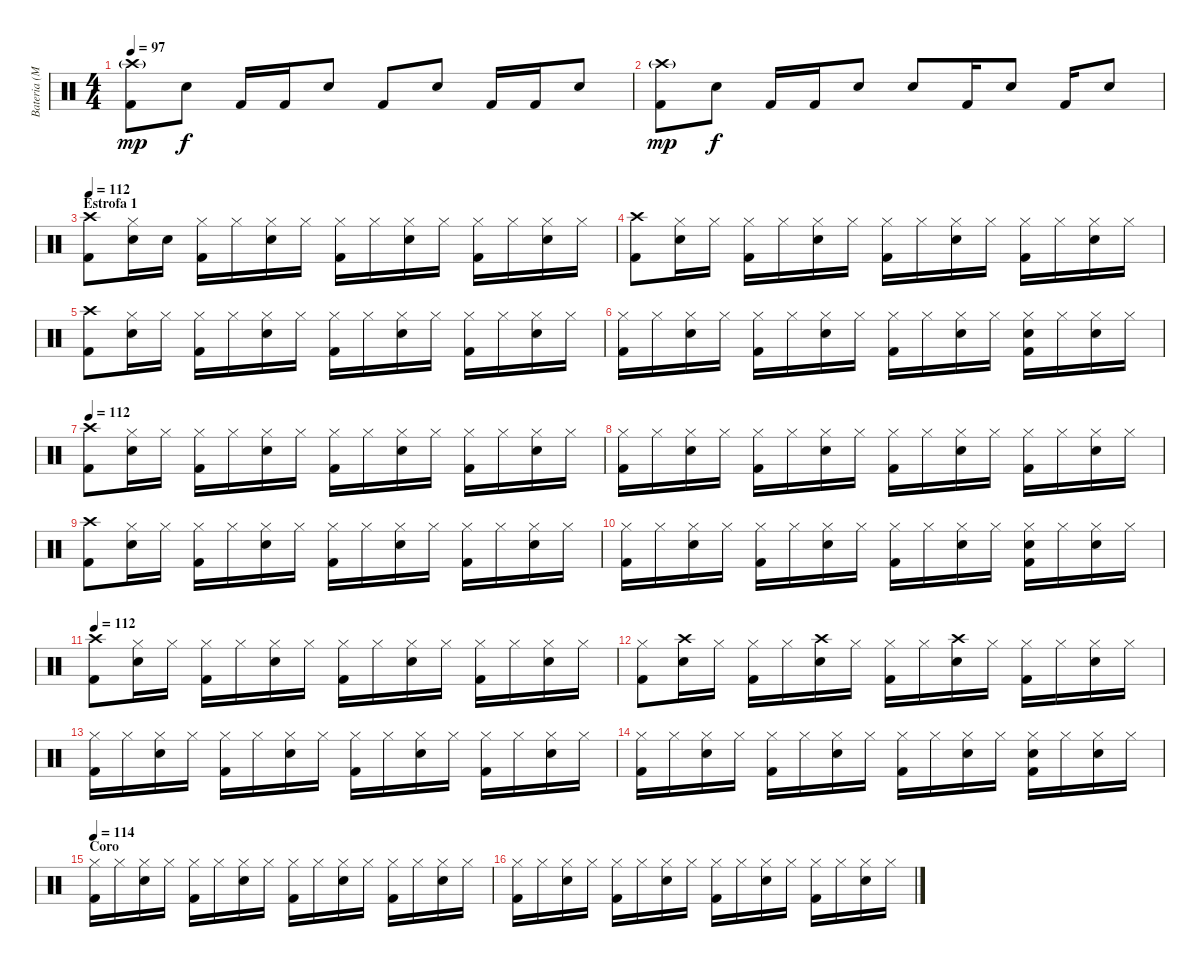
\track ("Bateria (Marcelo)" "Bateria (M") {instrument percussion}
\staff {score}
\articulation defaults
\ts (4 4)
\tempo 97
\clef neutral
\ks c
("Kick (hit) 2" "Crash high (hit)"{g}).8{dy mp} "Snare (hit) 2".8{dy f} "Kick (hit) 2".16 "Kick (hit) 2".16 "Snare (hit) 2".8 "Kick (hit) 2".8 "Snare (hit) 2".8 "Kick (hit) 2".16 "Kick (hit) 2".16 "Snare (hit) 2".8 |
("Kick (hit) 2" "Crash high (hit)"{g}).8{dy mp} "Snare (hit) 2".8{dy f} "Kick (hit) 2".16 "Kick (hit) 2".16 "Snare (hit) 2".8 "Snare (hit) 2".8 "Kick (hit) 2".16 "Snare (hit) 2".8 "Kick (hit) 2".16 "Snare (hit) 2".8 |
\section ("" "Estrofa 1")
\tempo 112
("Kick (hit) 2" "Crash high (hit)").8{volume 9} ("Snare (hit) 2" "Hi-Hat (closed)").16 "Snare (hit)".16 ("Kick (hit) 2" "Hi-Hat (closed)").16 "Hi-Hat (closed)".16 ("Snare (hit) 2" "Hi-Hat (closed)").16 "Hi-Hat (closed)".16 ("Kick (hit) 2" "Hi-Hat (closed)").16 "Hi-Hat (closed)".16 ("Snare (hit) 2" "Hi-Hat (closed)").16 "Hi-Hat (closed)".16 ("Kick (hit) 2" "Hi-Hat (closed)").16 "Hi-Hat (closed)".16 ("Snare (hit) 2" "Hi-Hat (closed)").16 "Hi-Hat (closed)".16 |
("Kick (hit) 2" "Crash high (hit)").8 ("Snare (hit) 2" "Hi-Hat (closed)").16 "Hi-Hat (closed)".16 ("Kick (hit) 2" "Hi-Hat (closed)").16 "Hi-Hat (closed)".16 ("Snare (hit) 2" "Hi-Hat (closed)").16 "Hi-Hat (closed)".16 ("Kick (hit) 2" "Hi-Hat (closed)").16 "Hi-Hat (closed)".16 ("Snare (hit) 2" "Hi-Hat (closed)").16 "Hi-Hat (closed)".16 ("Kick (hit) 2" "Hi-Hat (closed)").16 "Hi-Hat (closed)".16 ("Snare (hit) 2" "Hi-Hat (closed)").16 "Hi-Hat (closed)".16 |
("Kick (hit) 2" "Crash high (hit)").8 ("Snare (hit) 2" "Hi-Hat (closed)").16 "Hi-Hat (closed)".16 ("Kick (hit) 2" "Hi-Hat (closed)").16 "Hi-Hat (closed)".16 ("Snare (hit) 2" "Hi-Hat (closed)").16 "Hi-Hat (closed)".16 ("Kick (hit) 2" "Hi-Hat (closed)").16 "Hi-Hat (closed)".16 ("Snare (hit) 2" "Hi-Hat (closed)").16 "Hi-Hat (closed)".16 ("Kick (hit) 2" "Hi-Hat (closed)").16 "Hi-Hat (closed)".16 ("Snare (hit) 2" "Hi-Hat (closed)").16 "Hi-Hat (closed)".16 |
("Kick (hit) 2" "Hi-Hat (closed)").16 "Hi-Hat (closed)".16 ("Snare (hit) 2" "Hi-Hat (closed)").16 "Hi-Hat (closed)".16 ("Kick (hit) 2" "Hi-Hat (closed)").16 "Hi-Hat (closed)".16 ("Snare (hit) 2" "Hi-Hat (closed)").16 "Hi-Hat (closed)".16 ("Kick (hit) 2" "Hi-Hat (closed)").16 "Hi-Hat (closed)".16 ("Snare (hit) 2" "Hi-Hat (closed)").16 "Hi-Hat (closed)".16 ("Kick (hit) 2" "Hi-Hat (closed)" "Snare (hit) 2").16 "Hi-Hat (closed)".16 ("Snare (hit) 2" "Hi-Hat (closed)").16 "Hi-Hat (closed)".16 |
\tempo 112
("Kick (hit) 2" "Crash high (hit)").8{volume 13} ("Snare (hit) 2" "Hi-Hat (closed)").16 "Hi-Hat (closed)".16 ("Kick (hit) 2" "Hi-Hat (closed)").16 "Hi-Hat (closed)".16 ("Snare (hit) 2" "Hi-Hat (closed)").16 "Hi-Hat (closed)".16 ("Kick (hit) 2" "Hi-Hat (closed)").16 "Hi-Hat (closed)".16 ("Snare (hit) 2" "Hi-Hat (closed)").16 "Hi-Hat (closed)".16 ("Kick (hit) 2" "Hi-Hat (closed)").16 "Hi-Hat (closed)".16 ("Snare (hit) 2" "Hi-Hat (closed)").16 "Hi-Hat (closed)".16 |
("Kick (hit) 2" "Hi-Hat (closed)").16 "Hi-Hat (closed)".16 ("Snare (hit) 2" "Hi-Hat (closed)").16 "Hi-Hat (closed)".16 ("Kick (hit) 2" "Hi-Hat (closed)").16 "Hi-Hat (closed)".16 ("Snare (hit) 2" "Hi-Hat (closed)").16 "Hi-Hat (closed)".16 ("Kick (hit) 2" "Hi-Hat (closed)").16 "Hi-Hat (closed)".16 ("Snare (hit) 2" "Hi-Hat (closed)").16 "Hi-Hat (closed)".16 ("Kick (hit) 2" "Hi-Hat (closed)").16 "Hi-Hat (closed)".16 ("Snare (hit) 2" "Hi-Hat (closed)").16 "Hi-Hat (closed)".16 |
("Kick (hit) 2" "Crash high (hit)").8 ("Snare (hit) 2" "Hi-Hat (closed)").16 "Hi-Hat (closed)".16 ("Kick (hit) 2" "Hi-Hat (closed)").16 "Hi-Hat (closed)".16 ("Snare (hit) 2" "Hi-Hat (closed)").16 "Hi-Hat (closed)".16 ("Kick (hit) 2" "Hi-Hat (closed)").16 "Hi-Hat (closed)".16 ("Snare (hit) 2" "Hi-Hat (closed)").16 "Hi-Hat (closed)".16 ("Kick (hit) 2" "Hi-Hat (closed)").16 "Hi-Hat (closed)".16 ("Snare (hit) 2" "Hi-Hat (closed)").16 "Hi-Hat (closed)".16 |
("Kick (hit) 2" "Hi-Hat (closed)").16 "Hi-Hat (closed)".16 ("Snare (hit) 2" "Hi-Hat (closed)").16 "Hi-Hat (closed)".16 ("Kick (hit) 2" "Hi-Hat (closed)").16 "Hi-Hat (closed)".16 ("Snare (hit) 2" "Hi-Hat (closed)").16 "Hi-Hat (closed)".16 ("Kick (hit) 2" "Hi-Hat (closed)").16 "Hi-Hat (closed)".16 ("Snare (hit) 2" "Hi-Hat (closed)").16 "Hi-Hat (closed)".16 ("Kick (hit) 2" "Hi-Hat (closed)" "Snare (hit) 2").16 "Hi-Hat (closed)".16 ("Snare (hit) 2" "Hi-Hat (closed)").16 "Hi-Hat (closed)".16 |
\tempo 112
("Kick (hit) 2" "Crash high (hit)").8{volume 13} ("Snare (hit) 2" "Hi-Hat (closed)").16 "Hi-Hat (closed)".16 ("Kick (hit) 2" "Hi-Hat (closed)").16 "Hi-Hat (closed)".16 ("Snare (hit) 2" "Hi-Hat (closed)").16 "Hi-Hat (closed)".16 ("Kick (hit) 2" "Hi-Hat (closed)").16 "Hi-Hat (closed)".16 ("Snare (hit) 2" "Hi-Hat (closed)").16 "Hi-Hat (closed)".16 ("Kick (hit) 2" "Hi-Hat (closed)").16 "Hi-Hat (closed)".16 ("Snare (hit) 2" "Hi-Hat (closed)").16 "Hi-Hat (closed)".16 |
("Kick (hit) 2" "Hi-Hat (closed)").8 ("Snare (hit) 2" "Crash high (hit)").16 "Hi-Hat (closed)".16 ("Kick (hit) 2" "Hi-Hat (closed)").16 "Hi-Hat (closed)".16 ("Snare (hit) 2" "Crash high (hit)").16 "Hi-Hat (closed)".16 ("Kick (hit) 2" "Hi-Hat (closed)").16 "Hi-Hat (closed)".16 ("Snare (hit) 2" "Crash high (hit)").16 "Hi-Hat (closed)".16 ("Kick (hit) 2" "Hi-Hat (closed)").16 "Hi-Hat (closed)".16 ("Snare (hit) 2" "Hi-Hat (closed)").16 "Hi-Hat (closed)".16 |
("Kick (hit) 2" "Hi-Hat (closed)").16 "Hi-Hat (closed)".16 ("Snare (hit) 2" "Hi-Hat (closed)").16 "Hi-Hat (closed)".16 ("Kick (hit) 2" "Hi-Hat (closed)").16 "Hi-Hat (closed)".16 ("Snare (hit) 2" "Hi-Hat (closed)").16 "Hi-Hat (closed)".16 ("Kick (hit) 2" "Hi-Hat (closed)").16 "Hi-Hat (closed)".16 ("Snare (hit) 2" "Hi-Hat (closed)").16 "Hi-Hat (closed)".16 ("Kick (hit) 2" "Hi-Hat (closed)").16 "Hi-Hat (closed)".16 ("Snare (hit) 2" "Hi-Hat (closed)").16 "Hi-Hat (closed)".16 |
("Kick (hit) 2" "Hi-Hat (closed)").16 "Hi-Hat (closed)".16 ("Snare (hit) 2" "Hi-Hat (closed)").16 "Hi-Hat (closed)".16 ("Kick (hit) 2" "Hi-Hat (closed)").16 "Hi-Hat (closed)".16 ("Snare (hit) 2" "Hi-Hat (closed)").16 "Hi-Hat (closed)".16 ("Kick (hit) 2" "Hi-Hat (closed)").16 "Hi-Hat (closed)".16 ("Snare (hit) 2" "Hi-Hat (closed)").16 "Hi-Hat (closed)".16 ("Kick (hit) 2" "Hi-Hat (closed)" "Snare (hit) 2").16 "Hi-Hat (closed)".16 ("Snare (hit) 2" "Hi-Hat (closed)").16 "Hi-Hat (closed)".16 |
\section ("" "Coro")
\tempo 114
("Kick (hit) 2" "Hi-Hat (closed)").16{volume 13} "Hi-Hat (closed)".16 ("Snare (hit) 2" "Hi-Hat (closed)").16 "Hi-Hat (closed)".16 ("Kick (hit) 2" "Hi-Hat (closed)").16 "Hi-Hat (closed)".16 ("Snare (hit) 2" "Hi-Hat (closed)").16 "Hi-Hat (closed)".16 ("Kick (hit) 2" "Hi-Hat (closed)").16 "Hi-Hat (closed)".16 ("Snare (hit) 2" "Hi-Hat (closed)").16 "Hi-Hat (closed)".16 ("Kick (hit) 2" "Hi-Hat (closed)").16 "Hi-Hat (closed)".16 ("Snare (hit) 2" "Hi-Hat (closed)").16 "Hi-Hat (closed)".16 |
("Kick (hit) 2" "Hi-Hat (closed)").16 "Hi-Hat (closed)".16 ("Snare (hit) 2" "Hi-Hat (closed)").16 "Hi-Hat (closed)".16 ("Kick (hit) 2" "Hi-Hat (closed)").16 "Hi-Hat (closed)".16 ("Snare (hit) 2" "Hi-Hat (closed)").16 "Hi-Hat (closed)".16 ("Kick (hit) 2" "Hi-Hat (closed)").16 "Hi-Hat (closed)".16 ("Snare (hit) 2" "Hi-Hat (closed)").16 "Hi-Hat (closed)".16 ("Kick (hit) 2" "Hi-Hat (closed)").16 "Hi-Hat (closed)".16 ("Snare (hit) 2" "Hi-Hat (closed)").16 "Hi-Hat (closed)".16
